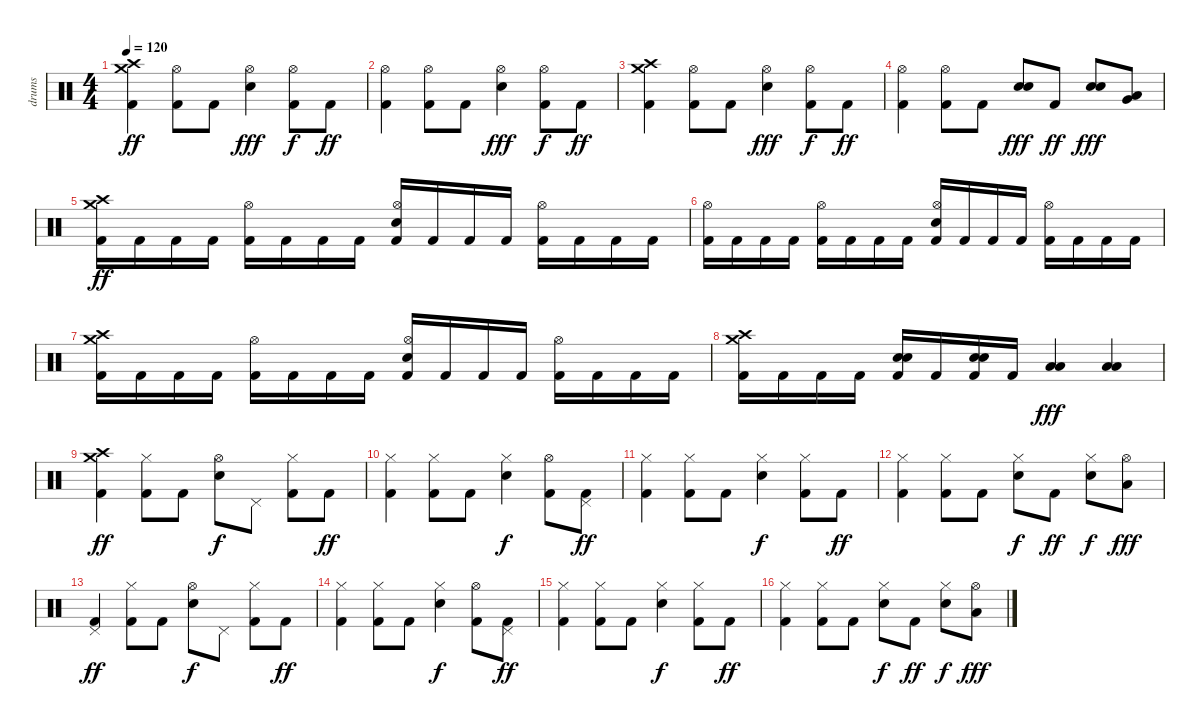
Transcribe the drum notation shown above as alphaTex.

\track ("drums" "drums") {instrument percussion}
\staff {score}
\articulation defaults
\ts (4 4)
\tempo 120
\clef neutral
\ks c
("Crash medium (hit)" "Crash high (hit)" "Kick (hit) 2").4{dy ff} ("Hi-Hat (open)" "Kick (hit) 2").8 "Kick (hit) 2".8 ("Hi-Hat (open)" "Electric Snare (hit)").4{dy fff} ("Hi-Hat (open)" "Kick (hit) 2").8{dy f} "Kick (hit) 2".8{dy ff} |
("Hi-Hat (open)" "Kick (hit) 2").4 ("Hi-Hat (open)" "Kick (hit) 2").8 "Kick (hit) 2".8 ("Hi-Hat (open)" "Electric Snare (hit)").4{dy fff} ("Hi-Hat (open)" "Kick (hit) 2").8{dy f} "Kick (hit) 2".8{dy ff} |
("Crash medium (hit)" "Crash high (hit)" "Kick (hit) 2").4 ("Hi-Hat (open)" "Kick (hit) 2").8 "Kick (hit) 2".8 ("Hi-Hat (open)" "Electric Snare (hit)").4{dy fff} ("Hi-Hat (open)" "Kick (hit) 2").8{dy f} "Kick (hit) 2".8{dy ff} |
("Hi-Hat (open)" "Kick (hit) 2").4 ("Hi-Hat (open)" "Kick (hit) 2").8 "Kick (hit) 2".8 ("Electric Snare (hit)" "Electric Snare (hit)").8{dy fff} "Kick (hit) 2".8{dy ff} ("Electric Snare (hit)" "Electric Snare (hit)").8{dy fff} ("Very Low Tom (hit)" "Low Floor Tom (hit)").8 |
("Crash medium (hit)" "Crash high (hit)" "Kick (hit) 2").16{dy ff} "Kick (hit) 2".16 "Kick (hit) 2".16 "Kick (hit) 2".16 ("Hi-Hat (open)" "Kick (hit) 2").16 "Kick (hit) 2".16 "Kick (hit) 2".16 "Kick (hit) 2".16 ("Hi-Hat (open)" "Electric Snare (hit)" "Kick (hit) 2").16 "Kick (hit) 2".16 "Kick (hit) 2".16 "Kick (hit) 2".16 ("Hi-Hat (open)" "Kick (hit) 2").16 "Kick (hit) 2".16 "Kick (hit) 2".16 "Kick (hit) 2".16 |
("Hi-Hat (open)" "Kick (hit) 2").16 "Kick (hit) 2".16 "Kick (hit) 2".16 "Kick (hit) 2".16 ("Hi-Hat (open)" "Kick (hit) 2").16 "Kick (hit) 2".16 "Kick (hit) 2".16 "Kick (hit) 2".16 ("Hi-Hat (open)" "Electric Snare (hit)" "Kick (hit) 2").16 "Kick (hit) 2".16 "Kick (hit) 2".16 "Kick (hit) 2".16 ("Hi-Hat (open)" "Kick (hit) 2").16 "Kick (hit) 2".16 "Kick (hit) 2".16 "Kick (hit) 2".16 |
("Crash medium (hit)" "Crash high (hit)" "Kick (hit) 2").16 "Kick (hit) 2".16 "Kick (hit) 2".16 "Kick (hit) 2".16 ("Hi-Hat (open)" "Kick (hit) 2").16 "Kick (hit) 2".16 "Kick (hit) 2".16 "Kick (hit) 2".16 ("Hi-Hat (open)" "Electric Snare (hit)" "Kick (hit) 2").16 "Kick (hit) 2".16 "Kick (hit) 2".16 "Kick (hit) 2".16 ("Hi-Hat (open)" "Kick (hit) 2").16 "Kick (hit) 2".16 "Kick (hit) 2".16 "Kick (hit) 2".16 |
("Crash medium (hit)" "Crash high (hit)" "Kick (hit) 2").16 "Kick (hit) 2".16 "Kick (hit) 2".16 "Kick (hit) 2".16 ("Electric Snare (hit)" "Electric Snare (hit)" "Kick (hit) 2").16 "Kick (hit) 2".16 ("Electric Snare (hit)" "Electric Snare (hit)" "Kick (hit) 2").16 "Kick (hit) 2".16 ("Low Tom (hit)" "Low Tom (hit)").4{dy fff} ("Low Floor Tom (hit)" "Low Floor Tom (hit)").4 |
("Crash medium (hit)" "Crash high (hit)" "Kick (hit) 2").4{dy ff} ("Hi-Hat (closed)" "Kick (hit) 2").8 "Kick (hit) 2".8 ("Hi-Hat (open)" "Electric Snare (hit)").8{dy f} "Pedal Hi-Hat (hit)".8 ("Hi-Hat (closed)" "Kick (hit) 2").8 "Kick (hit) 2".8{dy ff} |
("Hi-Hat (closed)" "Kick (hit) 2").4 ("Hi-Hat (closed)" "Kick (hit) 2").8 "Kick (hit) 2".8 ("Hi-Hat (closed)" "Electric Snare (hit)").4{dy f} ("Hi-Hat (open)" "Kick (hit) 2").8 ("Pedal Hi-Hat (hit)" "Kick (hit) 2").8{dy ff} |
("Hi-Hat (closed)" "Kick (hit) 2").4 ("Hi-Hat (closed)" "Kick (hit) 2").8 "Kick (hit) 2".8 ("Hi-Hat (closed)" "Electric Snare (hit)").4{dy f} ("Hi-Hat (closed)" "Kick (hit) 2").8 "Kick (hit) 2".8{dy ff} |
("Hi-Hat (closed)" "Kick (hit) 2").4 ("Hi-Hat (closed)" "Kick (hit) 2").8 "Kick (hit) 2".8 ("Hi-Hat (closed)" "Electric Snare (hit)").8{dy f} "Kick (hit) 2".8{dy ff} ("Hi-Hat (closed)" "Electric Snare (hit)").8{dy f} ("Hi-Hat (open)" "Low Floor Tom (hit)").8{dy fff} |
("Pedal Hi-Hat (hit)" "Kick (hit) 2").4{dy ff} ("Hi-Hat (closed)" "Kick (hit) 2").8 "Kick (hit) 2".8 ("Hi-Hat (open)" "Electric Snare (hit)").8{dy f} "Pedal Hi-Hat (hit)".8 ("Hi-Hat (closed)" "Kick (hit) 2").8 "Kick (hit) 2".8{dy ff} |
("Hi-Hat (closed)" "Kick (hit) 2").4 ("Hi-Hat (closed)" "Kick (hit) 2").8 "Kick (hit) 2".8 ("Hi-Hat (closed)" "Electric Snare (hit)").4{dy f} ("Hi-Hat (open)" "Kick (hit) 2").8 ("Pedal Hi-Hat (hit)" "Kick (hit) 2").8{dy ff} |
("Hi-Hat (closed)" "Kick (hit) 2").4 ("Hi-Hat (closed)" "Kick (hit) 2").8 "Kick (hit) 2".8 ("Hi-Hat (closed)" "Electric Snare (hit)").4{dy f} ("Hi-Hat (closed)" "Kick (hit) 2").8 "Kick (hit) 2".8{dy ff} |
("Hi-Hat (closed)" "Kick (hit) 2").4 ("Hi-Hat (closed)" "Kick (hit) 2").8 "Kick (hit) 2".8 ("Hi-Hat (closed)" "Electric Snare (hit)").8{dy f} "Kick (hit) 2".8{dy ff} ("Hi-Hat (closed)" "Electric Snare (hit)").8{dy f} ("Hi-Hat (open)" "Low Floor Tom (hit)").8{dy fff}
